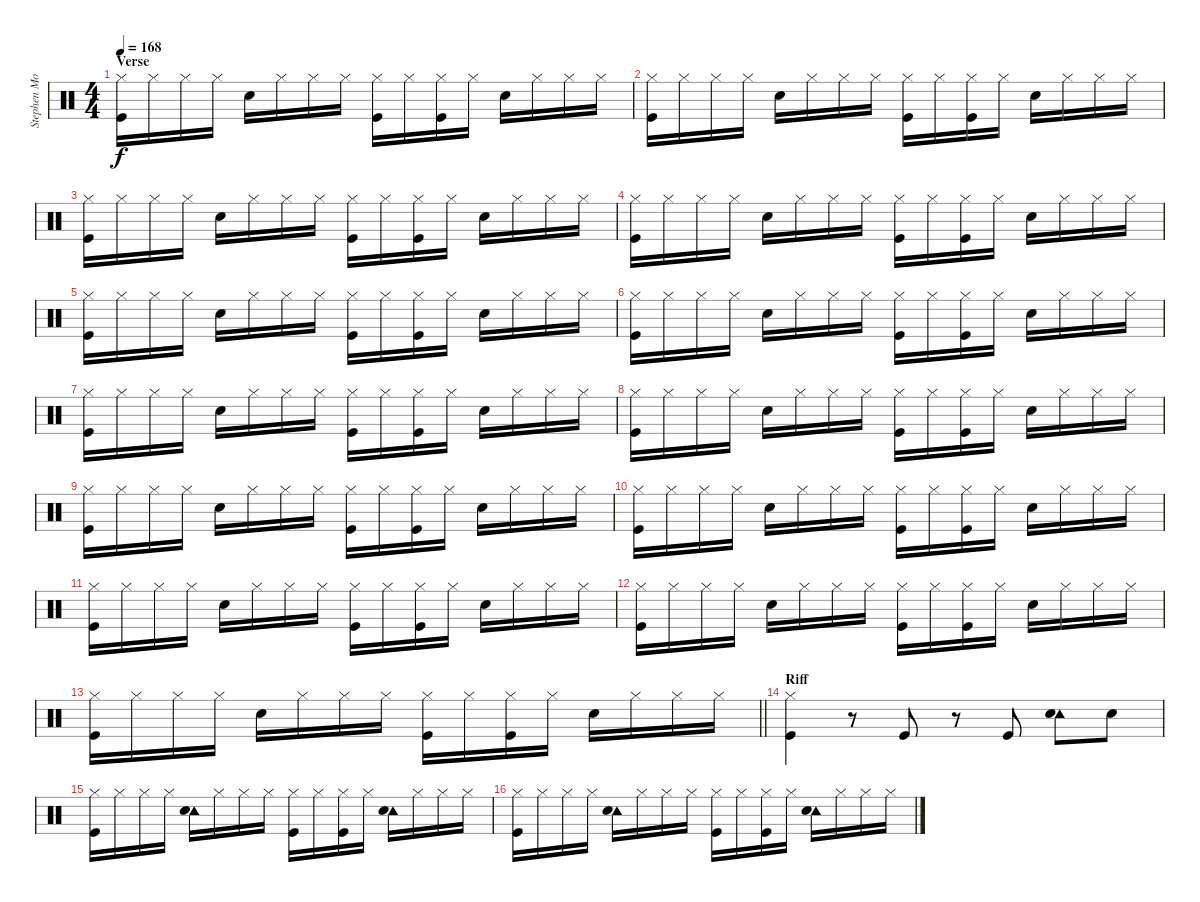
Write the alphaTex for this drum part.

\track ("Stephen Morris - Drums" "Stephen Mo") {instrument percussion}
\staff {score}
\articulation defaults
\ts (4 4)
\section ("" "Verse")
\tempo 168
\clef neutral
\ks c
("Hi-Hat (closed)" "Kick (hit)").16{dy f} "Hi-Hat (closed)".16 "Hi-Hat (closed)".16 "Hi-Hat (closed)".16 "Snare (hit) 2".16 "Hi-Hat (closed)".16 "Hi-Hat (closed)".16 "Hi-Hat (closed)".16 ("Hi-Hat (closed)" "Kick (hit)").16 "Hi-Hat (closed)".16 ("Hi-Hat (closed)" "Kick (hit)").16 "Hi-Hat (closed)".16 "Snare (hit) 2".16 "Hi-Hat (closed)".16 "Hi-Hat (closed)".16 "Hi-Hat (closed)".16 |
("Hi-Hat (closed)" "Kick (hit)").16 "Hi-Hat (closed)".16 "Hi-Hat (closed)".16 "Hi-Hat (closed)".16 "Snare (hit) 2".16 "Hi-Hat (closed)".16 "Hi-Hat (closed)".16 "Hi-Hat (closed)".16 ("Hi-Hat (closed)" "Kick (hit)").16 "Hi-Hat (closed)".16 ("Hi-Hat (closed)" "Kick (hit)").16 "Hi-Hat (closed)".16 "Snare (hit) 2".16 "Hi-Hat (closed)".16 "Hi-Hat (closed)".16 "Hi-Hat (closed)".16 |
("Hi-Hat (closed)" "Kick (hit)").16 "Hi-Hat (closed)".16 "Hi-Hat (closed)".16 "Hi-Hat (closed)".16 "Snare (hit) 2".16 "Hi-Hat (closed)".16 "Hi-Hat (closed)".16 "Hi-Hat (closed)".16 ("Hi-Hat (closed)" "Kick (hit)").16 "Hi-Hat (closed)".16 ("Hi-Hat (closed)" "Kick (hit)").16 "Hi-Hat (closed)".16 "Snare (hit) 2".16 "Hi-Hat (closed)".16 "Hi-Hat (closed)".16 "Hi-Hat (closed)".16 |
("Hi-Hat (closed)" "Kick (hit)").16 "Hi-Hat (closed)".16 "Hi-Hat (closed)".16 "Hi-Hat (closed)".16 "Snare (hit) 2".16 "Hi-Hat (closed)".16 "Hi-Hat (closed)".16 "Hi-Hat (closed)".16 ("Hi-Hat (closed)" "Kick (hit)").16 "Hi-Hat (closed)".16 ("Hi-Hat (closed)" "Kick (hit)").16 "Hi-Hat (closed)".16 "Snare (hit) 2".16 "Hi-Hat (closed)".16 "Hi-Hat (closed)".16 "Hi-Hat (closed)".16 |
("Hi-Hat (closed)" "Kick (hit)").16 "Hi-Hat (closed)".16 "Hi-Hat (closed)".16 "Hi-Hat (closed)".16 "Snare (hit) 2".16 "Hi-Hat (closed)".16 "Hi-Hat (closed)".16 "Hi-Hat (closed)".16 ("Hi-Hat (closed)" "Kick (hit)").16 "Hi-Hat (closed)".16 ("Hi-Hat (closed)" "Kick (hit)").16 "Hi-Hat (closed)".16 "Snare (hit) 2".16 "Hi-Hat (closed)".16 "Hi-Hat (closed)".16 "Hi-Hat (closed)".16 |
("Hi-Hat (closed)" "Kick (hit)").16 "Hi-Hat (closed)".16 "Hi-Hat (closed)".16 "Hi-Hat (closed)".16 "Snare (hit) 2".16 "Hi-Hat (closed)".16 "Hi-Hat (closed)".16 "Hi-Hat (closed)".16 ("Hi-Hat (closed)" "Kick (hit)").16 "Hi-Hat (closed)".16 ("Hi-Hat (closed)" "Kick (hit)").16 "Hi-Hat (closed)".16 "Snare (hit) 2".16 "Hi-Hat (closed)".16 "Hi-Hat (closed)".16 "Hi-Hat (closed)".16 |
("Hi-Hat (closed)" "Kick (hit)").16 "Hi-Hat (closed)".16 "Hi-Hat (closed)".16 "Hi-Hat (closed)".16 "Snare (hit) 2".16 "Hi-Hat (closed)".16 "Hi-Hat (closed)".16 "Hi-Hat (closed)".16 ("Hi-Hat (closed)" "Kick (hit)").16 "Hi-Hat (closed)".16 ("Hi-Hat (closed)" "Kick (hit)").16 "Hi-Hat (closed)".16 "Snare (hit) 2".16 "Hi-Hat (closed)".16 "Hi-Hat (closed)".16 "Hi-Hat (closed)".16 |
("Hi-Hat (closed)" "Kick (hit)").16 "Hi-Hat (closed)".16 "Hi-Hat (closed)".16 "Hi-Hat (closed)".16 "Snare (hit) 2".16 "Hi-Hat (closed)".16 "Hi-Hat (closed)".16 "Hi-Hat (closed)".16 ("Hi-Hat (closed)" "Kick (hit)").16 "Hi-Hat (closed)".16 ("Hi-Hat (closed)" "Kick (hit)").16 "Hi-Hat (closed)".16 "Snare (hit) 2".16 "Hi-Hat (closed)".16 "Hi-Hat (closed)".16 "Hi-Hat (closed)".16 |
("Hi-Hat (closed)" "Kick (hit)").16 "Hi-Hat (closed)".16 "Hi-Hat (closed)".16 "Hi-Hat (closed)".16 "Snare (hit) 2".16 "Hi-Hat (closed)".16 "Hi-Hat (closed)".16 "Hi-Hat (closed)".16 ("Hi-Hat (closed)" "Kick (hit)").16 "Hi-Hat (closed)".16 ("Hi-Hat (closed)" "Kick (hit)").16 "Hi-Hat (closed)".16 "Snare (hit) 2".16 "Hi-Hat (closed)".16 "Hi-Hat (closed)".16 "Hi-Hat (closed)".16 |
("Hi-Hat (closed)" "Kick (hit)").16 "Hi-Hat (closed)".16 "Hi-Hat (closed)".16 "Hi-Hat (closed)".16 "Snare (hit) 2".16 "Hi-Hat (closed)".16 "Hi-Hat (closed)".16 "Hi-Hat (closed)".16 ("Hi-Hat (closed)" "Kick (hit)").16 "Hi-Hat (closed)".16 ("Hi-Hat (closed)" "Kick (hit)").16 "Hi-Hat (closed)".16 "Snare (hit) 2".16 "Hi-Hat (closed)".16 "Hi-Hat (closed)".16 "Hi-Hat (closed)".16 |
("Hi-Hat (closed)" "Kick (hit)").16 "Hi-Hat (closed)".16 "Hi-Hat (closed)".16 "Hi-Hat (closed)".16 "Snare (hit) 2".16 "Hi-Hat (closed)".16 "Hi-Hat (closed)".16 "Hi-Hat (closed)".16 ("Hi-Hat (closed)" "Kick (hit)").16 "Hi-Hat (closed)".16 ("Hi-Hat (closed)" "Kick (hit)").16 "Hi-Hat (closed)".16 "Snare (hit) 2".16 "Hi-Hat (closed)".16 "Hi-Hat (closed)".16 "Hi-Hat (closed)".16 |
("Hi-Hat (closed)" "Kick (hit)").16 "Hi-Hat (closed)".16 "Hi-Hat (closed)".16 "Hi-Hat (closed)".16 "Snare (hit) 2".16 "Hi-Hat (closed)".16 "Hi-Hat (closed)".16 "Hi-Hat (closed)".16 ("Hi-Hat (closed)" "Kick (hit)").16 "Hi-Hat (closed)".16 ("Hi-Hat (closed)" "Kick (hit)").16 "Hi-Hat (closed)".16 "Snare (hit) 2".16 "Hi-Hat (closed)".16 "Hi-Hat (closed)".16 "Hi-Hat (closed)".16 |
\barLineRight lightlight
("Hi-Hat (closed)" "Kick (hit)").16 "Hi-Hat (closed)".16 "Hi-Hat (closed)".16 "Hi-Hat (closed)".16 "Snare (hit) 2".16 "Hi-Hat (closed)".16 "Hi-Hat (closed)".16 "Hi-Hat (closed)".16 ("Hi-Hat (closed)" "Kick (hit)").16 "Hi-Hat (closed)".16 ("Hi-Hat (closed)" "Kick (hit)").16 "Hi-Hat (closed)".16 "Snare (hit) 2".16 "Hi-Hat (closed)".16 "Hi-Hat (closed)".16 "Hi-Hat (closed)".16 |
\section ("" "Riff")
("Hi-Hat (closed)" "Kick (hit)").4 r.8 "Kick (hit)".8 r.8 "Kick (hit)".8 ("Tambourine (hit)" "Snare (hit) 2").8 "Snare (hit) 2".8 |
("Hi-Hat (closed)" "Kick (hit)").16 "Hi-Hat (closed)".16 "Hi-Hat (closed)".16 "Hi-Hat (closed)".16 ("Tambourine (hit)" "Snare (hit) 2").16 "Hi-Hat (closed)".16 "Hi-Hat (closed)".16 "Hi-Hat (closed)".16 ("Hi-Hat (closed)" "Kick (hit)").16 "Hi-Hat (closed)".16 ("Hi-Hat (closed)" "Kick (hit)").16 "Hi-Hat (closed)".16 ("Tambourine (hit)" "Snare (hit) 2").16 "Hi-Hat (closed)".16 "Hi-Hat (closed)".16 "Hi-Hat (closed)".16 |
("Hi-Hat (closed)" "Kick (hit)").16 "Hi-Hat (closed)".16 "Hi-Hat (closed)".16 "Hi-Hat (closed)".16 ("Tambourine (hit)" "Snare (hit) 2").16 "Hi-Hat (closed)".16 "Hi-Hat (closed)".16 "Hi-Hat (closed)".16 ("Hi-Hat (closed)" "Kick (hit)").16 "Hi-Hat (closed)".16 ("Hi-Hat (closed)" "Kick (hit)").16 "Hi-Hat (closed)".16 ("Tambourine (hit)" "Snare (hit) 2").16 "Hi-Hat (closed)".16 "Hi-Hat (closed)".16 "Hi-Hat (closed)".16
